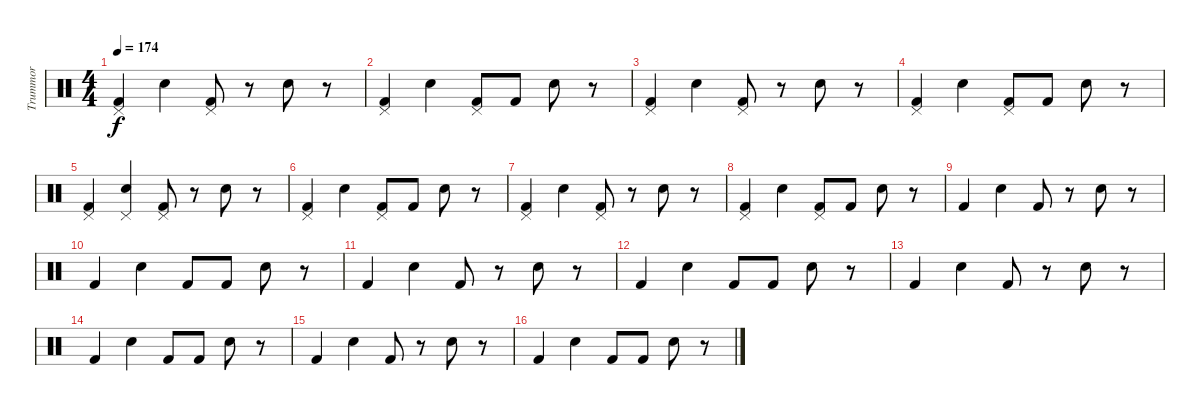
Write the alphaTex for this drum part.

\track ("Trummor" "Trummor") {instrument percussion}
\staff {score}
\articulation defaults
\ts (4 4)
\tempo 174
\clef neutral
\ks c
("Pedal Hi-Hat (hit)" "Kick (hit) 2").4{dy f} "Snare (hit) 2".4 ("Pedal Hi-Hat (hit)" "Kick (hit) 2").8 r.8 "Snare (hit) 2".8 r.8 |
("Pedal Hi-Hat (hit)" "Kick (hit) 2").4 "Snare (hit) 2".4 ("Pedal Hi-Hat (hit)" "Kick (hit) 2").8 "Kick (hit) 2".8 "Snare (hit) 2".8 r.8 |
("Pedal Hi-Hat (hit)" "Kick (hit) 2").4 "Snare (hit) 2".4 ("Pedal Hi-Hat (hit)" "Kick (hit) 2").8 r.8 "Snare (hit) 2".8 r.8 |
("Pedal Hi-Hat (hit)" "Kick (hit) 2").4 "Snare (hit) 2".4 ("Pedal Hi-Hat (hit)" "Kick (hit) 2").8 "Kick (hit) 2".8 "Snare (hit) 2".8 r.8 |
("Pedal Hi-Hat (hit)" "Kick (hit) 2").4 ("Pedal Hi-Hat (hit)" "Snare (hit) 2").4 ("Pedal Hi-Hat (hit)" "Kick (hit) 2").8 r.8 "Snare (hit) 2".8 r.8 |
("Pedal Hi-Hat (hit)" "Kick (hit) 2").4 "Snare (hit) 2".4 ("Pedal Hi-Hat (hit)" "Kick (hit) 2").8 "Kick (hit) 2".8 "Snare (hit) 2".8 r.8 |
("Pedal Hi-Hat (hit)" "Kick (hit) 2").4 "Snare (hit) 2".4 ("Pedal Hi-Hat (hit)" "Kick (hit) 2").8 r.8 "Snare (hit) 2".8 r.8 |
("Pedal Hi-Hat (hit)" "Kick (hit) 2").4 "Snare (hit) 2".4 ("Pedal Hi-Hat (hit)" "Kick (hit) 2").8 "Kick (hit) 2".8 "Snare (hit) 2".8 r.8 |
"Kick (hit) 2".4 "Snare (hit) 2".4 "Kick (hit) 2".8 r.8 "Snare (hit) 2".8 r.8 |
"Kick (hit) 2".4 "Snare (hit) 2".4 "Kick (hit) 2".8 "Kick (hit) 2".8 "Snare (hit) 2".8 r.8 |
"Kick (hit) 2".4 "Snare (hit) 2".4 "Kick (hit) 2".8 r.8 "Snare (hit) 2".8 r.8 |
"Kick (hit) 2".4 "Snare (hit) 2".4 "Kick (hit) 2".8 "Kick (hit) 2".8 "Snare (hit) 2".8 r.8 |
"Kick (hit) 2".4 "Snare (hit) 2".4 "Kick (hit) 2".8 r.8 "Snare (hit) 2".8 r.8 |
"Kick (hit) 2".4 "Snare (hit) 2".4 "Kick (hit) 2".8 "Kick (hit) 2".8 "Snare (hit) 2".8 r.8 |
"Kick (hit) 2".4 "Snare (hit) 2".4 "Kick (hit) 2".8 r.8 "Snare (hit) 2".8 r.8 |
"Kick (hit) 2".4 "Snare (hit) 2".4 "Kick (hit) 2".8 "Kick (hit) 2".8 "Snare (hit) 2".8 r.8
